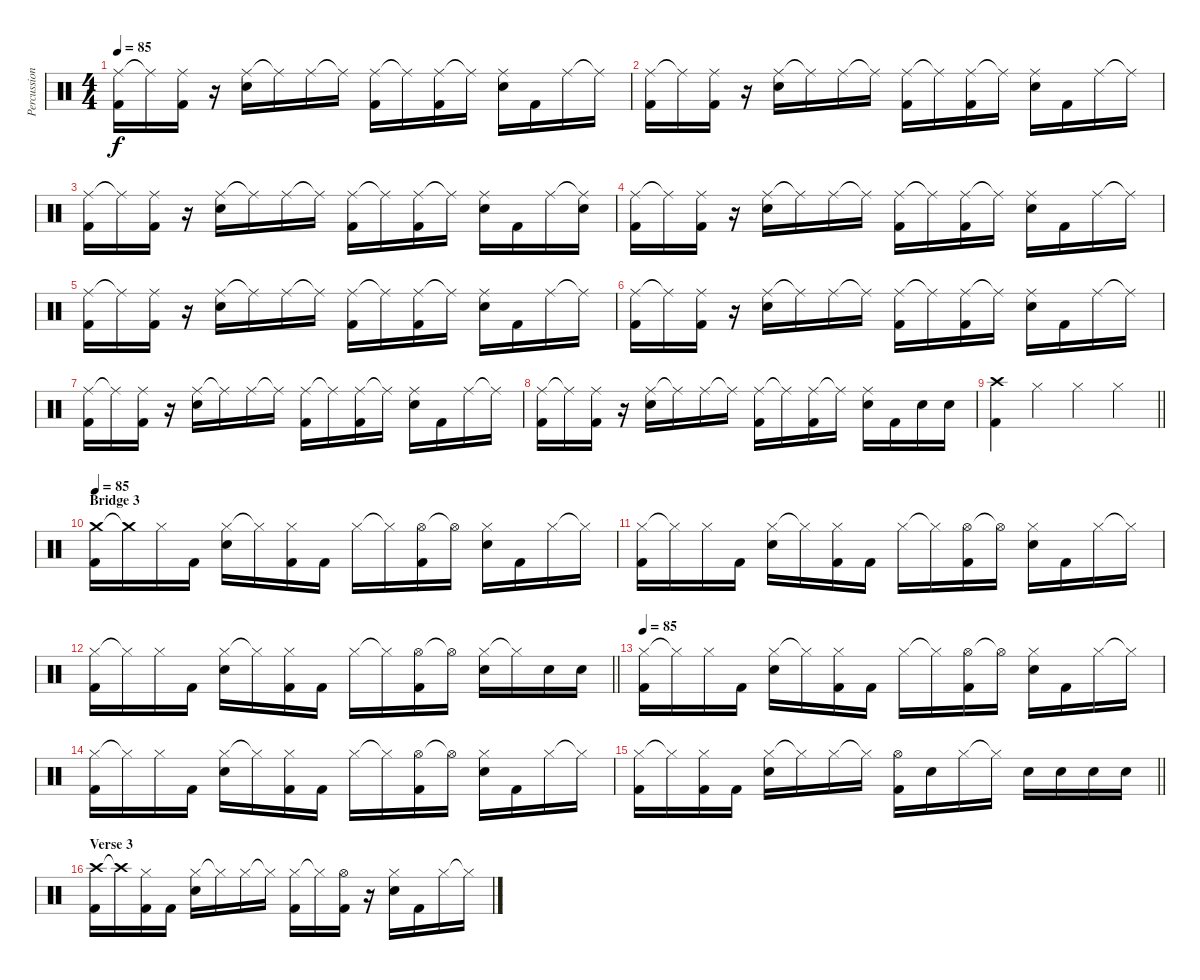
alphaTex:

\track ("Percussion" "Percussion") {instrument percussion}
\staff {score}
\articulation defaults
\ts (4 4)
\tempo 85
\clef neutral
\ks c
("Ride (middle)" "Kick (hit) 2").16{dy f} "Ride (middle)"{t}.16 ("Ride (middle)" "Kick (hit) 2").16 r.16 ("Ride (middle)" "Electric Snare (hit)").16 "Ride (middle)"{t}.16 "Ride (middle)".16 "Ride (middle)"{t}.16 ("Ride (middle)" "Kick (hit) 2").16 "Ride (middle)"{t}.16 ("Ride (middle)" "Kick (hit) 2").16 "Ride (middle)"{t}.16 ("Ride (middle)" "Electric Snare (hit)").16 "Kick (hit) 2".16 "Ride (middle)".16 "Ride (middle)"{t}.16 |
("Ride (middle)" "Kick (hit) 2").16 "Ride (middle)"{t}.16 ("Ride (middle)" "Kick (hit) 2").16 r.16 ("Ride (middle)" "Electric Snare (hit)").16 "Ride (middle)"{t}.16 "Ride (middle)".16 "Ride (middle)"{t}.16 ("Ride (middle)" "Kick (hit) 2").16 "Ride (middle)"{t}.16 ("Ride (middle)" "Kick (hit) 2").16 "Ride (middle)"{t}.16 ("Ride (middle)" "Electric Snare (hit)").16 "Kick (hit) 2".16 "Ride (middle)".16 "Ride (middle)"{t}.16 |
("Ride (middle)" "Kick (hit) 2").16 "Ride (middle)"{t}.16 ("Ride (middle)" "Kick (hit) 2").16 r.16 ("Ride (middle)" "Electric Snare (hit)").16 "Ride (middle)"{t}.16 "Ride (middle)".16 "Ride (middle)"{t}.16 ("Ride (middle)" "Kick (hit) 2").16 "Ride (middle)"{t}.16 ("Ride (middle)" "Kick (hit) 2").16 "Ride (middle)"{t}.16 ("Ride (middle)" "Electric Snare (hit)").16 "Kick (hit) 2".16 "Ride (middle)".16 ("Ride (middle)"{t} "Electric Snare (hit)").16 |
("Ride (middle)" "Kick (hit) 2").16 "Ride (middle)"{t}.16 ("Ride (middle)" "Kick (hit) 2").16 r.16 ("Ride (middle)" "Electric Snare (hit)").16 "Ride (middle)"{t}.16 "Ride (middle)".16 "Ride (middle)"{t}.16 ("Ride (middle)" "Kick (hit) 2").16 "Ride (middle)"{t}.16 ("Ride (middle)" "Kick (hit) 2").16 "Ride (middle)"{t}.16 ("Ride (middle)" "Electric Snare (hit)").16 "Kick (hit) 2".16 "Ride (middle)".16 "Ride (middle)"{t}.16 |
("Ride (middle)" "Kick (hit) 2").16 "Ride (middle)"{t}.16 ("Ride (middle)" "Kick (hit) 2").16 r.16 ("Ride (middle)" "Electric Snare (hit)").16 "Ride (middle)"{t}.16 "Ride (middle)".16 "Ride (middle)"{t}.16 ("Ride (middle)" "Kick (hit) 2").16 "Ride (middle)"{t}.16 ("Ride (middle)" "Kick (hit) 2").16 "Ride (middle)"{t}.16 ("Ride (middle)" "Electric Snare (hit)").16 "Kick (hit) 2".16 "Ride (middle)".16 "Ride (middle)"{t}.16 |
("Ride (middle)" "Kick (hit) 2").16 "Ride (middle)"{t}.16 ("Ride (middle)" "Kick (hit) 2").16 r.16 ("Ride (middle)" "Electric Snare (hit)").16 "Ride (middle)"{t}.16 "Ride (middle)".16 "Ride (middle)"{t}.16 ("Ride (middle)" "Kick (hit) 2").16 "Ride (middle)"{t}.16 ("Ride (middle)" "Kick (hit) 2").16 "Ride (middle)"{t}.16 ("Ride (middle)" "Electric Snare (hit)").16 "Kick (hit) 2".16 "Ride (middle)".16 "Ride (middle)"{t}.16 |
("Ride (middle)" "Kick (hit) 2").16 "Ride (middle)"{t}.16 ("Ride (middle)" "Kick (hit) 2").16 r.16 ("Ride (middle)" "Electric Snare (hit)").16 "Ride (middle)"{t}.16 "Ride (middle)".16 "Ride (middle)"{t}.16 ("Ride (middle)" "Kick (hit) 2").16 "Ride (middle)"{t}.16 ("Ride (middle)" "Kick (hit) 2").16 "Ride (middle)"{t}.16 ("Ride (middle)" "Electric Snare (hit)").16 "Kick (hit) 2".16 "Ride (middle)".16 "Ride (middle)"{t}.16 |
("Ride (middle)" "Kick (hit) 2").16 "Ride (middle)"{t}.16 ("Ride (middle)" "Kick (hit) 2").16 r.16 ("Ride (middle)" "Electric Snare (hit)").16 "Ride (middle)"{t}.16 "Ride (middle)".16 "Ride (middle)"{t}.16 ("Ride (middle)" "Kick (hit) 2").16 "Ride (middle)"{t}.16 ("Ride (middle)" "Kick (hit) 2").16 "Ride (middle)"{t}.16 ("Ride (middle)" "Electric Snare (hit)").16 "Kick (hit) 2".16 "Electric Snare (hit)".16 "Electric Snare (hit)".16 |
\barLineRight lightlight
("Crash high (hit)" "Kick (hit) 2").4 "Hi-Hat (closed)".4 "Hi-Hat (closed)".4 "Hi-Hat (closed)".4 |
\section ("" "Bridge 3")
\tempo 85
("Crash medium (hit)" "Kick (hit) 2").16 "Crash medium (hit)"{t}.16 "Hi-Hat (closed)".16 "Kick (hit) 2".16 ("Hi-Hat (closed)" "Electric Snare (hit)").16 "Hi-Hat (closed)"{t}.16 ("Hi-Hat (closed)" "Kick (hit) 2").16 "Kick (hit) 2".16 "Hi-Hat (closed)".16 "Hi-Hat (closed)"{t}.16 ("Hi-Hat (open)" "Kick (hit) 2").16 "Hi-Hat (open)"{t}.16 ("Hi-Hat (closed)" "Electric Snare (hit)").16 "Kick (hit) 2".16 "Hi-Hat (closed)".16 "Hi-Hat (closed)"{t}.16 |
("Hi-Hat (closed)" "Kick (hit) 2").16 "Hi-Hat (closed)"{t}.16 "Hi-Hat (closed)".16 "Kick (hit) 2".16 ("Hi-Hat (closed)" "Electric Snare (hit)").16 "Hi-Hat (closed)"{t}.16 ("Hi-Hat (closed)" "Kick (hit) 2").16 "Kick (hit) 2".16 "Hi-Hat (closed)".16 "Hi-Hat (closed)"{t}.16 ("Hi-Hat (open)" "Kick (hit) 2").16 "Hi-Hat (open)"{t}.16 ("Hi-Hat (closed)" "Electric Snare (hit)").16 "Kick (hit) 2".16 "Hi-Hat (closed)".16 "Hi-Hat (closed)"{t}.16 |
\barLineRight lightlight
("Hi-Hat (closed)" "Kick (hit) 2").16 "Hi-Hat (closed)"{t}.16 "Hi-Hat (closed)".16 "Kick (hit) 2".16 ("Hi-Hat (closed)" "Electric Snare (hit)").16 "Hi-Hat (closed)"{t}.16 ("Hi-Hat (closed)" "Kick (hit) 2").16 "Kick (hit) 2".16 "Hi-Hat (closed)".16 "Hi-Hat (closed)"{t}.16 ("Hi-Hat (open)" "Kick (hit) 2").16 "Hi-Hat (open)"{t}.16 ("Hi-Hat (closed)" "Electric Snare (hit)").16 "Hi-Hat (closed)"{t}.16 "Electric Snare (hit)".16 "Electric Snare (hit)".16 |
\tempo 85
("Hi-Hat (closed)" "Kick (hit) 2").16 "Hi-Hat (closed)"{t}.16 "Hi-Hat (closed)".16 "Kick (hit) 2".16 ("Hi-Hat (closed)" "Electric Snare (hit)").16 "Hi-Hat (closed)"{t}.16 ("Hi-Hat (closed)" "Kick (hit) 2").16 "Kick (hit) 2".16 "Hi-Hat (closed)".16 "Hi-Hat (closed)"{t}.16 ("Hi-Hat (open)" "Kick (hit) 2").16 "Hi-Hat (open)"{t}.16 ("Hi-Hat (closed)" "Electric Snare (hit)").16 "Kick (hit) 2".16 "Hi-Hat (closed)".16 "Hi-Hat (closed)"{t}.16 |
("Hi-Hat (closed)" "Kick (hit) 2").16 "Hi-Hat (closed)"{t}.16 "Hi-Hat (closed)".16 "Kick (hit) 2".16 ("Hi-Hat (closed)" "Electric Snare (hit)").16 "Hi-Hat (closed)"{t}.16 ("Hi-Hat (closed)" "Kick (hit) 2").16 "Kick (hit) 2".16 "Hi-Hat (closed)".16 "Hi-Hat (closed)"{t}.16 ("Hi-Hat (open)" "Kick (hit) 2").16 "Hi-Hat (open)"{t}.16 ("Hi-Hat (closed)" "Electric Snare (hit)").16 "Kick (hit) 2".16 "Hi-Hat (closed)".16 "Hi-Hat (closed)"{t}.16 |
\barLineRight lightlight
("Hi-Hat (closed)" "Kick (hit) 2").16 "Hi-Hat (closed)"{t}.16 ("Hi-Hat (closed)" "Kick (hit) 2").16 "Kick (hit) 2".16 ("Hi-Hat (closed)" "Electric Snare (hit)").16 "Hi-Hat (closed)"{t}.16 "Hi-Hat (closed)".16 "Hi-Hat (closed)"{t}.16 ("Hi-Hat (open)" "Kick (hit) 2").16 "Electric Snare (hit)".16 "Hi-Hat (closed)".16 "Hi-Hat (closed)"{t}.16 "Electric Snare (hit)".16 "Electric Snare (hit)".16 "Electric Snare (hit)".16 "Electric Snare (hit)".16 |
\section ("" "Verse 3")
("Crash high (hit)" "Kick (hit) 2").16 "Crash high (hit)"{t}.16 ("Hi-Hat (closed)" "Kick (hit) 2").16 "Kick (hit) 2".16 ("Hi-Hat (closed)" "Electric Snare (hit)").16 "Hi-Hat (closed)"{t}.16 "Hi-Hat (closed)".16 "Hi-Hat (closed)"{t}.16 ("Hi-Hat (closed)" "Kick (hit) 2").16 "Hi-Hat (closed)"{t}.16 ("Hi-Hat (open)" "Kick (hit) 2").16 r.16 ("Hi-Hat (closed)" "Electric Snare (hit)").16 "Kick (hit) 2".16 "Hi-Hat (closed)".16 "Hi-Hat (closed)"{t}.16
